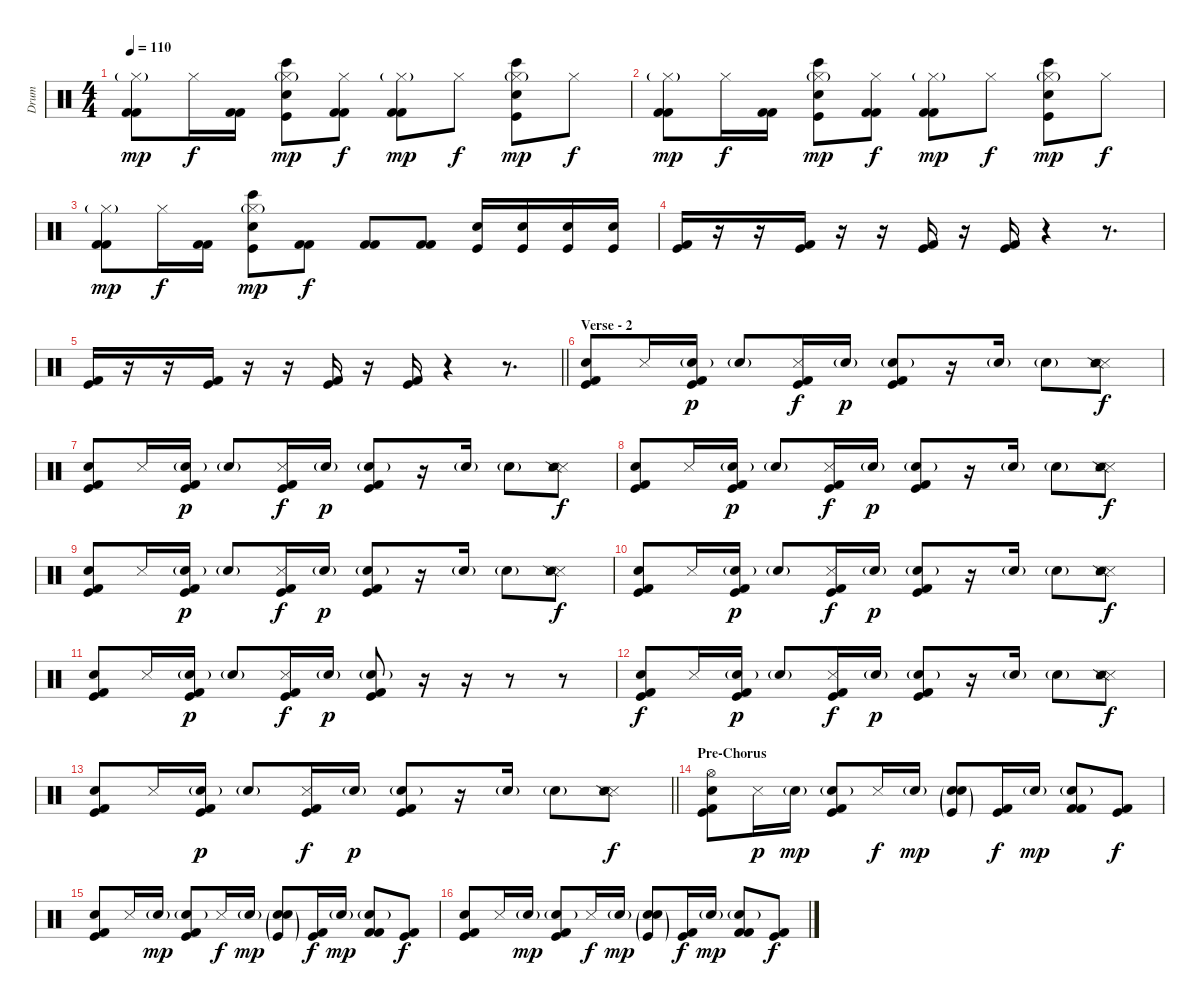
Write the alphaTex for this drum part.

\track ("Drum" "Drum") {instrument percussion}
\staff {score}
\articulation defaults
\ts (4 4)
\tempo 110
\clef neutral
\ks c
("Hi-Hat (closed)"{g} "Kick (hit) 2" "Kick (hit) 2").8{dy mp} "Hi-Hat (closed)".16{dy f} ("Kick (hit) 2" "Kick (hit) 2").16 ("Hi-Hat (closed)"{g} "Bongo High (hit)" "Electric Snare (hit)" "Kick (hit)").8{dy mp} ("Hi-Hat (closed)" "Kick (hit) 2" "Kick (hit) 2").8{dy f} ("Hi-Hat (closed)"{g} "Kick (hit) 2" "Kick (hit) 2").8{dy mp} "Hi-Hat (closed)".8{dy f} ("Hi-Hat (closed)"{g} "Bongo High (hit)" "Electric Snare (hit)" "Kick (hit)").8{dy mp} "Hi-Hat (closed)".8{dy f} |
("Hi-Hat (closed)"{g} "Kick (hit) 2" "Kick (hit) 2").8{dy mp} "Hi-Hat (closed)".16{dy f} ("Kick (hit) 2" "Kick (hit) 2").16 ("Hi-Hat (closed)"{g} "Bongo High (hit)" "Electric Snare (hit)" "Kick (hit)").8{dy mp} ("Hi-Hat (closed)" "Kick (hit) 2" "Kick (hit) 2").8{dy f} ("Hi-Hat (closed)"{g} "Kick (hit) 2" "Kick (hit) 2").8{dy mp} "Hi-Hat (closed)".8{dy f} ("Hi-Hat (closed)"{g} "Bongo High (hit)" "Electric Snare (hit)" "Kick (hit)").8{dy mp} "Hi-Hat (closed)".8{dy f} |
("Hi-Hat (closed)"{g} "Kick (hit) 2" "Kick (hit) 2").8{dy mp} "Hi-Hat (closed)".16{dy f} ("Kick (hit) 2" "Kick (hit) 2").16 ("Hi-Hat (closed)"{g} "Bongo High (hit)" "Electric Snare (hit)" "Kick (hit)").8{dy mp} ("Kick (hit) 2" "Kick (hit) 2").8{dy f} ("Kick (hit) 2" "Kick (hit) 2").8 ("Kick (hit) 2" "Kick (hit) 2").8 ("Electric Snare (hit)" "Kick (hit)").16 ("Electric Snare (hit)" "Kick (hit)").16 ("Electric Snare (hit)" "Kick (hit)").16 ("Electric Snare (hit)" "Kick (hit)").16 |
("Kick (hit) 2" "Kick (hit)").16 r.16 r.16 ("Kick (hit) 2" "Kick (hit)").16 r.16 r.16 ("Kick (hit) 2" "Kick (hit)").16 r.16 ("Kick (hit) 2" "Kick (hit)").16 r.4 r.8{d} |
\barLineRight lightlight
("Kick (hit) 2" "Kick (hit)").16 r.16 r.16 ("Kick (hit) 2" "Kick (hit)").16 r.16 r.16 ("Kick (hit) 2" "Kick (hit)").16 r.16 ("Kick (hit) 2" "Kick (hit)").16 r.4 r.8{d} |
\section ("" "Verse - 2")
("Hand Clap (hit)" "Kick (hit) 2" "Kick (hit)").8 "Snare (side stick) 3".16 ("Hand Clap (hit)"{g} "Kick (hit) 2" "Kick (hit)").16{dy p} "Hand Clap (hit)"{g}.8 ("Snare (side stick) 3" "Kick (hit) 2" "Kick (hit)").16{dy f} "Hand Clap (hit)"{g}.16{dy p} ("Hand Clap (hit)"{g} "Kick (hit) 2" "Kick (hit)").8 r.16 "Hand Clap (hit)"{g}.16 "Hand Clap (hit)"{g}.8 ("Metronome (hit)" "Snare (side stick) 3" "Snare (side stick) 2").8{dy f} |
("Hand Clap (hit)" "Kick (hit) 2" "Kick (hit)").8 "Snare (side stick) 3".16 ("Hand Clap (hit)"{g} "Kick (hit) 2" "Kick (hit)").16{dy p} "Hand Clap (hit)"{g}.8 ("Snare (side stick) 3" "Kick (hit) 2" "Kick (hit)").16{dy f} "Hand Clap (hit)"{g}.16{dy p} ("Hand Clap (hit)"{g} "Kick (hit) 2" "Kick (hit)").8 r.16 "Hand Clap (hit)"{g}.16 "Hand Clap (hit)"{g}.8 ("Metronome (hit)" "Snare (side stick) 3" "Snare (side stick) 2").8{dy f} |
("Hand Clap (hit)" "Kick (hit) 2" "Kick (hit)").8 "Snare (side stick) 3".16 ("Hand Clap (hit)"{g} "Kick (hit) 2" "Kick (hit)").16{dy p} "Hand Clap (hit)"{g}.8 ("Snare (side stick) 3" "Kick (hit) 2" "Kick (hit)").16{dy f} "Hand Clap (hit)"{g}.16{dy p} ("Hand Clap (hit)"{g} "Kick (hit) 2" "Kick (hit)").8 r.16 "Hand Clap (hit)"{g}.16 "Hand Clap (hit)"{g}.8 ("Metronome (hit)" "Snare (side stick) 3" "Snare (side stick) 2").8{dy f} |
("Hand Clap (hit)" "Kick (hit) 2" "Kick (hit)").8 "Snare (side stick) 3".16 ("Hand Clap (hit)"{g} "Kick (hit) 2" "Kick (hit)").16{dy p} "Hand Clap (hit)"{g}.8 ("Snare (side stick) 3" "Kick (hit) 2" "Kick (hit)").16{dy f} "Hand Clap (hit)"{g}.16{dy p} ("Hand Clap (hit)"{g} "Kick (hit) 2" "Kick (hit)").8 r.16 "Hand Clap (hit)"{g}.16 "Hand Clap (hit)"{g}.8 ("Metronome (hit)" "Snare (side stick) 3" "Snare (side stick) 2").8{dy f} |
("Hand Clap (hit)" "Kick (hit) 2" "Kick (hit)").8 "Snare (side stick) 3".16 ("Hand Clap (hit)"{g} "Kick (hit) 2" "Kick (hit)").16{dy p} "Hand Clap (hit)"{g}.8 ("Snare (side stick) 3" "Kick (hit) 2" "Kick (hit)").16{dy f} "Hand Clap (hit)"{g}.16{dy p} ("Hand Clap (hit)"{g} "Kick (hit) 2" "Kick (hit)").8 r.16 "Hand Clap (hit)"{g}.16 "Hand Clap (hit)"{g}.8 ("Metronome (hit)" "Snare (side stick) 3" "Snare (side stick) 2").8{dy f} |
("Hand Clap (hit)" "Kick (hit) 2" "Kick (hit)").8 "Snare (side stick) 3".16 ("Hand Clap (hit)"{g} "Kick (hit) 2" "Kick (hit)").16{dy p} "Hand Clap (hit)"{g}.8 ("Snare (side stick) 3" "Kick (hit) 2" "Kick (hit)").16{dy f} "Hand Clap (hit)"{g}.16{dy p} ("Hand Clap (hit)"{g} "Kick (hit) 2" "Kick (hit)").8 r.16 r.16 r.8 r.8 |
("Hand Clap (hit)" "Kick (hit) 2" "Kick (hit)").8{dy f} "Snare (side stick) 3".16 ("Hand Clap (hit)"{g} "Kick (hit) 2" "Kick (hit)").16{dy p} "Hand Clap (hit)"{g}.8 ("Snare (side stick) 3" "Kick (hit) 2" "Kick (hit)").16{dy f} "Hand Clap (hit)"{g}.16{dy p} ("Hand Clap (hit)"{g} "Kick (hit) 2" "Kick (hit)").8 r.16 "Hand Clap (hit)"{g}.16 "Hand Clap (hit)"{g}.8 ("Metronome (hit)" "Snare (side stick) 3" "Snare (side stick) 2").8{dy f} |
\barLineRight lightlight
("Hand Clap (hit)" "Kick (hit) 2" "Kick (hit)").8 "Snare (side stick) 3".16 ("Hand Clap (hit)"{g} "Kick (hit) 2" "Kick (hit)").16{dy p} "Hand Clap (hit)"{g}.8 ("Snare (side stick) 3" "Kick (hit) 2" "Kick (hit)").16{dy f} "Hand Clap (hit)"{g}.16{dy p} ("Hand Clap (hit)"{g} "Kick (hit) 2" "Kick (hit)").8 r.16 "Hand Clap (hit)"{g}.16 "Hand Clap (hit)"{g}.8 ("Metronome (hit)" "Snare (side stick) 3" "Snare (side stick) 2").8{dy f} |
\section ("" "Pre-Chorus")
("Hi-Hat (open)" "Hand Clap (hit)" "Kick (hit) 2" "Kick (hit)").8 "Snare (side stick) 3".16{dy p} "Hand Clap (hit)"{g}.16{dy mp} ("Hand Clap (hit)"{g} "Kick (hit) 2" "Kick (hit)").8 "Snare (side stick) 3".16{dy f} "Hand Clap (hit)"{g}.16{dy mp} ("Hand Clap (hit)"{g} "Snare (hit) 2"{g} "Kick (hit)"{g}).8 ("Kick (hit) 2" "Kick (hit)").16{dy f} "Hand Clap (hit)"{g}.16{dy mp} ("Hand Clap (hit)"{g} "Kick (hit) 2" "Kick (hit) 2").8 ("Kick (hit) 2" "Kick (hit)").8{dy f} |
("Hand Clap (hit)" "Kick (hit) 2" "Kick (hit)").8 "Snare (side stick) 3".16 "Hand Clap (hit)"{g}.16{dy mp} ("Hand Clap (hit)"{g} "Kick (hit) 2" "Kick (hit)").8 "Snare (side stick) 3".16{dy f} "Hand Clap (hit)"{g}.16{dy mp} ("Hand Clap (hit)"{g} "Snare (hit) 2"{g} "Kick (hit)"{g}).8 ("Kick (hit) 2" "Kick (hit)").16{dy f} "Hand Clap (hit)"{g}.16{dy mp} ("Hand Clap (hit)"{g} "Kick (hit) 2" "Kick (hit) 2").8 ("Kick (hit) 2" "Kick (hit)").8{dy f} |
("Hand Clap (hit)" "Kick (hit) 2" "Kick (hit)").8 "Snare (side stick) 3".16 "Hand Clap (hit)"{g}.16{dy mp} ("Hand Clap (hit)"{g} "Kick (hit) 2" "Kick (hit)").8 "Snare (side stick) 3".16{dy f} "Hand Clap (hit)"{g}.16{dy mp} ("Hand Clap (hit)"{g} "Snare (hit) 2"{g} "Kick (hit)"{g}).8 ("Kick (hit) 2" "Kick (hit)").16{dy f} "Hand Clap (hit)"{g}.16{dy mp} ("Hand Clap (hit)"{g} "Kick (hit) 2" "Kick (hit) 2").8 ("Kick (hit) 2" "Kick (hit)").8{dy f}
